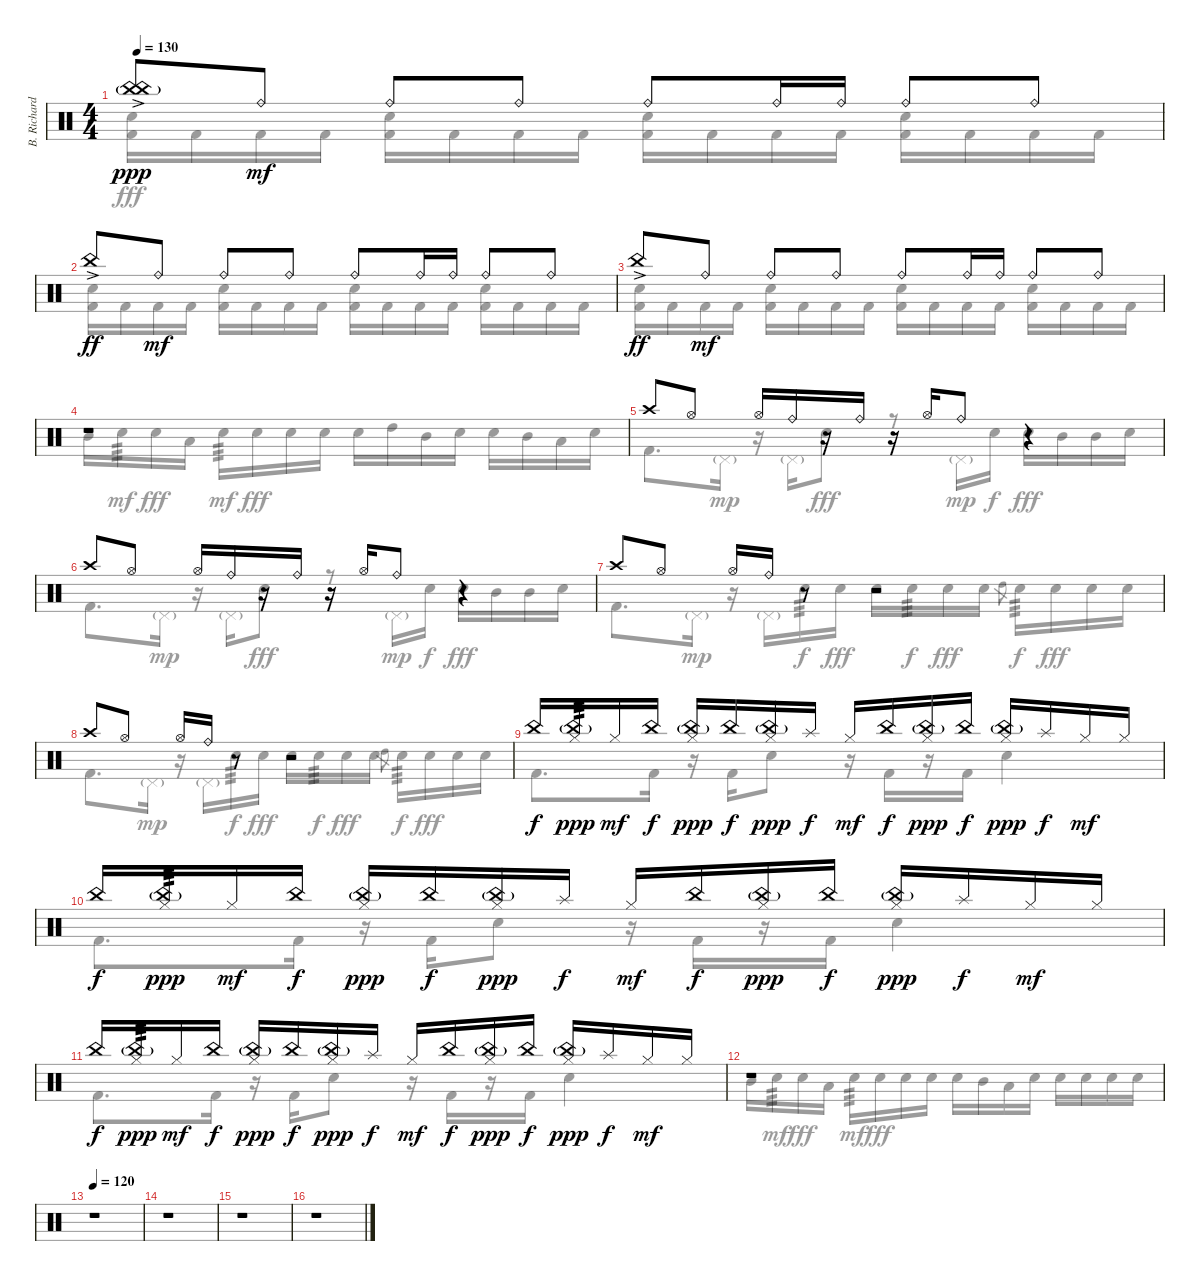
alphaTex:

\track ("B. Richardson Drums" "B. Richard") {instrument percussion}
\staff {score}
\articulation defaults
\voice
\ts (4 4)
\tempo 130
\clef neutral
\ks c
("China (hit)"{ac} "China (hit)"{g}).8{dy ppp} "Ride (bell)".8{dy mf} "Ride (bell)".8 "Ride (bell)".8 "Ride (bell)".8 "Ride (bell)".16 "Ride (bell)".16 "Ride (bell)".8 "Ride (bell)".8 |
"China (hit)"{ac}.8{dy ff} "Ride (bell)".8{dy mf} "Ride (bell)".8 "Ride (bell)".8 "Ride (bell)".8 "Ride (bell)".16 "Ride (bell)".16 "Ride (bell)".8 "Ride (bell)".8 |
"China (hit)"{ac}.8{dy ff} "Ride (bell)".8{dy mf} "Ride (bell)".8 "Ride (bell)".8 "Ride (bell)".8 "Ride (bell)".16 "Ride (bell)".16 "Ride (bell)".8 "Ride (bell)".8 |
r.1 |
"Crash high (hit)".8 "Hi-Hat (open)".8 "Hi-Hat (open)".16 "Ride (bell)".16 r.16 "Ride (bell)".16 r.16 "Hi-Hat (open)".16 "Ride (bell)".8 r.4 |
"Crash high (hit)".8 "Hi-Hat (open)".8 "Hi-Hat (open)".16 "Ride (bell)".16 r.16 "Ride (bell)".16 r.16 "Hi-Hat (open)".16 "Ride (bell)".8 r.4 |
"Crash high (hit)".8 "Hi-Hat (open)".8 "Hi-Hat (open)".16 "Ride (bell)".16 r.8 r.2 |
"Crash high (hit)".8 "Hi-Hat (open)".8 "Hi-Hat (open)".16 "Ride (bell)".16 r.8 r.2 |
"China (hit)".16{dy f} ("Hi-Hat (closed)" "China (hit)"{g}).16{tp 3 dy ppp} "Hi-Hat (closed)".16{dy mf} "China (hit)".16{dy f} ("Hi-Hat (closed)" "China (hit)"{g}).16{dy ppp} "China (hit)".16{dy f} ("Hi-Hat (closed)" "China (hit)"{g}).16{dy ppp} "Splash (hit)".16{dy f} "Hi-Hat (closed)".16{dy mf} "China (hit)".16{dy f} ("Hi-Hat (closed)" "China (hit)"{g}).16{dy ppp} "China (hit)".16{dy f} ("Hi-Hat (closed)" "China (hit)"{g}).16{dy ppp} "Splash (hit)".16{dy f} "Hi-Hat (closed)".16{dy mf} "Hi-Hat (closed)".16 |
"China (hit)".16{dy f} ("Hi-Hat (closed)" "China (hit)"{g}).16{tp 3 dy ppp} "Hi-Hat (closed)".16{dy mf} "China (hit)".16{dy f} ("Hi-Hat (closed)" "China (hit)"{g}).16{dy ppp} "China (hit)".16{dy f} ("Hi-Hat (closed)" "China (hit)"{g}).16{dy ppp} "Splash (hit)".16{dy f} "Hi-Hat (closed)".16{dy mf} "China (hit)".16{dy f} ("Hi-Hat (closed)" "China (hit)"{g}).16{dy ppp} "China (hit)".16{dy f} ("Hi-Hat (closed)" "China (hit)"{g}).16{dy ppp} "Splash (hit)".16{dy f} "Hi-Hat (closed)".16{dy mf} "Hi-Hat (closed)".16 |
"China (hit)".16{dy f} ("Hi-Hat (closed)" "China (hit)"{g}).16{tp 3 dy ppp} "Hi-Hat (closed)".16{dy mf} "China (hit)".16{dy f} ("Hi-Hat (closed)" "China (hit)"{g}).16{dy ppp} "China (hit)".16{dy f} ("Hi-Hat (closed)" "China (hit)"{g}).16{dy ppp} "Splash (hit)".16{dy f} "Hi-Hat (closed)".16{dy mf} "China (hit)".16{dy f} ("Hi-Hat (closed)" "China (hit)"{g}).16{dy ppp} "China (hit)".16{dy f} ("Hi-Hat (closed)" "China (hit)"{g}).16{dy ppp} "Splash (hit)".16{dy f} "Hi-Hat (closed)".16{dy mf} "Hi-Hat (closed)".16 |
r.1 |
\tempo 120
r.1 |
r.1 |
r.1 |
r.1
\voice
\clef neutral
\ottava regular
\simile none
\ks c
("Electric Snare (hit)" "Kick (hit) 2").16{dy fff} "Kick (hit) 2".16 "Kick (hit) 2".16 "Kick (hit) 2".16 ("Electric Snare (hit)" "Kick (hit) 2").16 "Kick (hit) 2".16 "Kick (hit) 2".16 "Kick (hit) 2".16 ("Electric Snare (hit)" "Kick (hit) 2").16 "Kick (hit) 2".16 "Kick (hit) 2".16 "Kick (hit) 2".16 ("Electric Snare (hit)" "Kick (hit) 2").16 "Kick (hit) 2".16 "Kick (hit) 2".16 "Kick (hit) 2".16 |
("Electric Snare (hit)" "Kick (hit) 2").16 "Kick (hit) 2".16 "Kick (hit) 2".16 "Kick (hit) 2".16 ("Electric Snare (hit)" "Kick (hit) 2").16 "Kick (hit) 2".16 "Kick (hit) 2".16 "Kick (hit) 2".16 ("Electric Snare (hit)" "Kick (hit) 2").16 "Kick (hit) 2".16 "Kick (hit) 2".16 "Kick (hit) 2".16 ("Electric Snare (hit)" "Kick (hit) 2").16 "Kick (hit) 2".16 "Kick (hit) 2".16 "Kick (hit) 2".16 |
("Electric Snare (hit)" "Kick (hit) 2").16 "Kick (hit) 2".16 "Kick (hit) 2".16 "Kick (hit) 2".16 ("Electric Snare (hit)" "Kick (hit) 2").16 "Kick (hit) 2".16 "Kick (hit) 2".16 "Kick (hit) 2".16 ("Electric Snare (hit)" "Kick (hit) 2").16 "Kick (hit) 2".16 "Kick (hit) 2".16 "Kick (hit) 2".16 ("Electric Snare (hit)" "Kick (hit) 2").16 "Kick (hit) 2".16 "Kick (hit) 2".16 "Kick (hit) 2".16 |
"Mid Tom (hit)".16 "Electric Snare (hit)".16{tp 3 dy mf} "Electric Snare (hit)".16{dy fff} "Low Tom (hit)".16 "Electric Snare (hit)".16{tp 3 dy mf} "Electric Snare (hit)".16{dy fff} "Electric Snare (hit)".16 "Electric Snare (hit)".16 "Electric Snare (hit)".16 "High Tom (hit)".16 "Mid Tom (hit)".16 "Electric Snare (hit)".16 "Electric Snare (hit)".16 "Mid Tom (hit)".16 "Low Tom (hit)".16 "Electric Snare (hit)".16 |
"Kick (hit) 2".8{d} "Pedal Hi-Hat (hit)"{g}.16{dy mp} r.16 "Pedal Hi-Hat (hit)"{g}.16 "Electric Snare (hit)".8{dy fff} r.8 "Pedal Hi-Hat (hit)"{g}.16{dy mp} "Electric Snare (hit)".16{dy f} "Electric Snare (hit)".16{dy fff} "Mid Tom (hit)".16 "Mid Tom (hit)".16 "Electric Snare (hit)".16 |
"Kick (hit) 2".8{d} "Pedal Hi-Hat (hit)"{g}.16{dy mp} r.16 "Pedal Hi-Hat (hit)"{g}.16 "Electric Snare (hit)".8{dy fff} r.8 "Pedal Hi-Hat (hit)"{g}.16{dy mp} "Electric Snare (hit)".16{dy f} "Electric Snare (hit)".16{dy fff} "Mid Tom (hit)".16 "Mid Tom (hit)".16 "Electric Snare (hit)".16 |
"Kick (hit) 2".8{d} "Pedal Hi-Hat (hit)"{g}.16{dy mp} r.16 "Pedal Hi-Hat (hit)"{g}.16 "Electric Snare (hit)".16{tp 3 dy f} "Electric Snare (hit)".16{dy fff} "Electric Snare (hit)".16 "Electric Snare (hit)".16{tp 3 dy f} "Electric Snare (hit)".16{dy fff} "Electric Snare (hit)".16 "High Tom (hit)".8{gr} "Electric Snare (hit)".16{tp 3 dy f} "Electric Snare (hit)".16{dy fff} "Electric Snare (hit)".16 "Electric Snare (hit)".16 |
"Kick (hit) 2".8{d} "Pedal Hi-Hat (hit)"{g}.16{dy mp} r.16 "Pedal Hi-Hat (hit)"{g}.16 "Electric Snare (hit)".16{tp 3 dy f} "Electric Snare (hit)".16{dy fff} "Electric Snare (hit)".16 "Electric Snare (hit)".16{tp 3 dy f} "Electric Snare (hit)".16{dy fff} "Electric Snare (hit)".16 "High Tom (hit)".8{gr} "Electric Snare (hit)".16{tp 3 dy f} "Electric Snare (hit)".16{dy fff} "Electric Snare (hit)".16 "Electric Snare (hit)".16 |
"Kick (hit) 2".8{d} "Kick (hit) 2".16 r.16 "Kick (hit) 2".16 "Electric Snare (hit)".8 r.16 "Kick (hit) 2".16 r.16 "Kick (hit) 2".16 "Electric Snare (hit)".4 |
"Kick (hit) 2".8{d} "Kick (hit) 2".16 r.16 "Kick (hit) 2".16 "Electric Snare (hit)".8 r.16 "Kick (hit) 2".16 r.16 "Kick (hit) 2".16 "Electric Snare (hit)".4 |
"Kick (hit) 2".8{d} "Kick (hit) 2".16 r.16 "Kick (hit) 2".16 "Electric Snare (hit)".8 r.16 "Kick (hit) 2".16 r.16 "Kick (hit) 2".16 "Electric Snare (hit)".4 |
"Mid Tom (hit)".16 "Electric Snare (hit)".16{tp 3 dy mf} "Electric Snare (hit)".16{dy fff} "Low Tom (hit)".16 "Electric Snare (hit)".16{tp 3 dy mf} "Electric Snare (hit)".16{dy fff} "Electric Snare (hit)".16 "Electric Snare (hit)".16 "Electric Snare (hit)".16 "Mid Tom (hit)".16 "Low Tom (hit)".16 "Electric Snare (hit)".16 "Electric Snare (hit)".16 "Electric Snare (hit)".16 "Electric Snare (hit)".16 "Electric Snare (hit)".16 |
r.1 |
r.1 |
r.1 |
r.1
